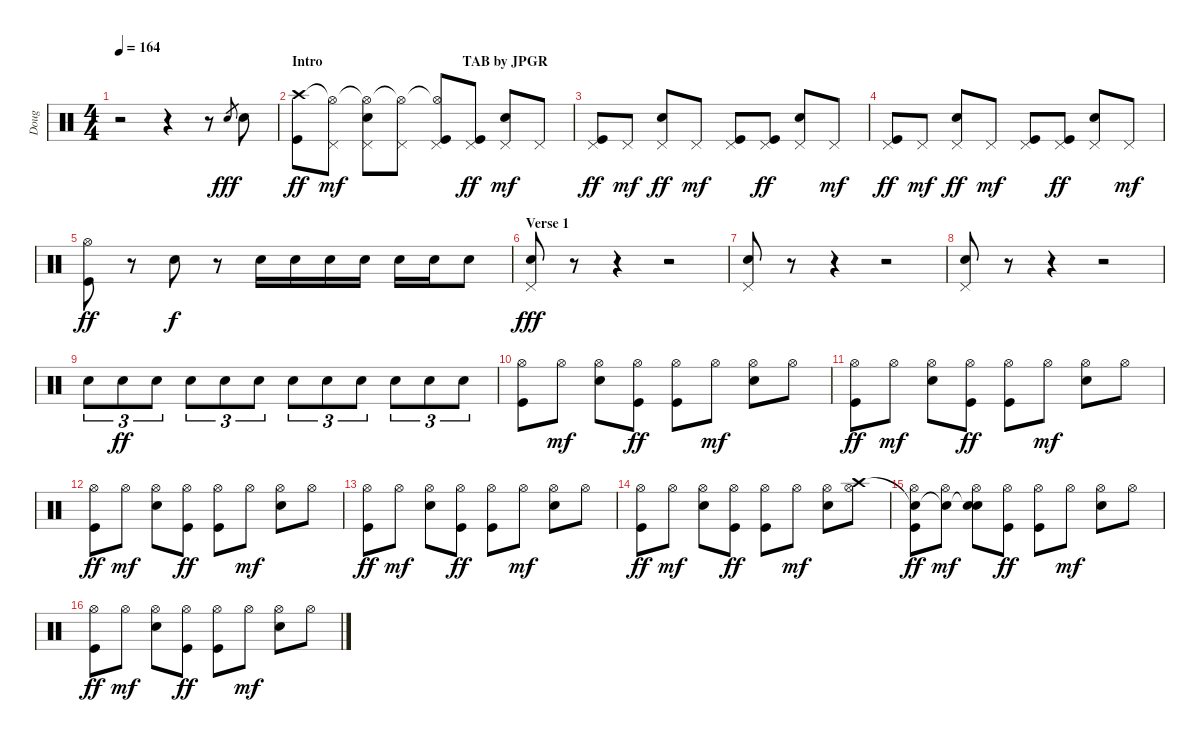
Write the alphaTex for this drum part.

\track ("Doug" "Doug") {instrument percussion}
\staff {score}
\articulation defaults
\ts (4 4)
\tempo 164
\clef neutral
\ks c
r.2{dy fff} r.4 r.8 "Electric Snare (hit)".8{gr} "Electric Snare (hit)".8 |
\section ("" "Intro                                        TAB by JPGR")
("Crash high (hit)" "Kick (hit)").8{dy ff} ("Hi-Hat (open)"{t} "Pedal Hi-Hat (hit)").8{dy mf} ("Hi-Hat (open)"{t} "Pedal Hi-Hat (hit)" "Electric Snare (hit)").8 ("Hi-Hat (open)"{t} "Pedal Hi-Hat (hit)").8 ("Hi-Hat (open)"{t} "Pedal Hi-Hat (hit)" "Kick (hit)").8 ("Pedal Hi-Hat (hit)" "Kick (hit)").8{dy ff} ("Pedal Hi-Hat (hit)" "Electric Snare (hit)").8{dy mf} "Pedal Hi-Hat (hit)".8 |
("Pedal Hi-Hat (hit)" "Kick (hit)").8{dy ff} "Pedal Hi-Hat (hit)".8{dy mf} ("Pedal Hi-Hat (hit)" "Electric Snare (hit)").8{dy ff} "Pedal Hi-Hat (hit)".8{dy mf} ("Pedal Hi-Hat (hit)" "Kick (hit)").8 ("Pedal Hi-Hat (hit)" "Kick (hit)").8{dy ff} ("Pedal Hi-Hat (hit)" "Electric Snare (hit)").8 "Pedal Hi-Hat (hit)".8{dy mf} |
("Pedal Hi-Hat (hit)" "Kick (hit)").8{dy ff} "Pedal Hi-Hat (hit)".8{dy mf} ("Pedal Hi-Hat (hit)" "Electric Snare (hit)").8{dy ff} "Pedal Hi-Hat (hit)".8{dy mf} ("Pedal Hi-Hat (hit)" "Kick (hit)").8 ("Pedal Hi-Hat (hit)" "Kick (hit)").8{dy ff} ("Pedal Hi-Hat (hit)" "Electric Snare (hit)").8 "Pedal Hi-Hat (hit)".8{dy mf} |
("Hi-Hat (open)" "Kick (hit)").8{dy ff} r.8 "Electric Snare (hit)".8{dy f} r.8 "Electric Snare (hit)".16 "Electric Snare (hit)".16 "Electric Snare (hit)".16 "Electric Snare (hit)".16 "Electric Snare (hit)".16 "Electric Snare (hit)".16 "Electric Snare (hit)".8 |
\section ("" "Verse 1")
("Pedal Hi-Hat (hit)" "Electric Snare (hit)").8{dy fff} r.8 r.4 r.2 |
("Pedal Hi-Hat (hit)" "Electric Snare (hit)").8 r.8 r.4 r.2 |
("Pedal Hi-Hat (hit)" "Electric Snare (hit)").8 r.8 r.4 r.2 |
"Electric Snare (hit)".8{tu (3 2)} "Electric Snare (hit)".8{tu (3 2) dy ff} "Electric Snare (hit)".8{tu (3 2)} "Electric Snare (hit)".8{tu (3 2)} "Electric Snare (hit)".8{tu (3 2)} "Electric Snare (hit)".8{tu (3 2)} "Electric Snare (hit)".8{tu (3 2)} "Electric Snare (hit)".8{tu (3 2)} "Electric Snare (hit)".8{tu (3 2)} "Electric Snare (hit)".8{tu (3 2)} "Electric Snare (hit)".8{tu (3 2)} "Electric Snare (hit)".8{tu (3 2)} |
("Hi-Hat (open)" "Kick (hit)").8 "Hi-Hat (open)".8{dy mf} ("Hi-Hat (open)" "Electric Snare (hit)").8 ("Hi-Hat (open)" "Kick (hit)").8{dy ff} ("Hi-Hat (open)" "Kick (hit)").8 "Hi-Hat (open)".8{dy mf} ("Hi-Hat (open)" "Electric Snare (hit)").8 "Hi-Hat (open)".8 |
("Hi-Hat (open)" "Kick (hit)").8{dy ff} "Hi-Hat (open)".8{dy mf} ("Hi-Hat (open)" "Electric Snare (hit)").8 ("Hi-Hat (open)" "Kick (hit)").8{dy ff} ("Hi-Hat (open)" "Kick (hit)").8 "Hi-Hat (open)".8{dy mf} ("Hi-Hat (open)" "Electric Snare (hit)").8 "Hi-Hat (open)".8 |
("Hi-Hat (open)" "Kick (hit)").8{dy ff} "Hi-Hat (open)".8{dy mf} ("Hi-Hat (open)" "Electric Snare (hit)").8 ("Hi-Hat (open)" "Kick (hit)").8{dy ff} ("Hi-Hat (open)" "Kick (hit)").8 "Hi-Hat (open)".8{dy mf} ("Hi-Hat (open)" "Electric Snare (hit)").8 "Hi-Hat (open)".8 |
("Hi-Hat (open)" "Kick (hit)").8{dy ff} "Hi-Hat (open)".8{dy mf} ("Hi-Hat (open)" "Electric Snare (hit)").8 ("Hi-Hat (open)" "Kick (hit)").8{dy ff} ("Hi-Hat (open)" "Kick (hit)").8 "Hi-Hat (open)".8{dy mf} ("Hi-Hat (open)" "Electric Snare (hit)").8 "Hi-Hat (open)".8 |
("Hi-Hat (open)" "Kick (hit)").8{dy ff} "Hi-Hat (open)".8{dy mf} ("Hi-Hat (open)" "Electric Snare (hit)").8 ("Hi-Hat (open)" "Kick (hit)").8{dy ff} ("Hi-Hat (open)" "Kick (hit)").8 "Hi-Hat (open)".8{dy mf} ("Hi-Hat (open)" "Electric Snare (hit)").8 ("Crash high (hit)" "Hi-Hat (open)").8 |
("Snare (hit)"{t} "Hi-Hat (open)" "Kick (hit)").8{dy ff} ("Snare (hit)"{t} "Hi-Hat (open)").8{dy mf} ("Snare (hit)"{t} "Hi-Hat (open)" "Electric Snare (hit)").8 ("Hi-Hat (open)" "Kick (hit)").8{dy ff} ("Hi-Hat (open)" "Kick (hit)").8 "Hi-Hat (open)".8{dy mf} ("Hi-Hat (open)" "Electric Snare (hit)").8 "Hi-Hat (open)".8 |
("Hi-Hat (open)" "Kick (hit)").8{dy ff} "Hi-Hat (open)".8{dy mf} ("Hi-Hat (open)" "Electric Snare (hit)").8 ("Hi-Hat (open)" "Kick (hit)").8{dy ff} ("Hi-Hat (open)" "Kick (hit)").8 "Hi-Hat (open)".8{dy mf} ("Hi-Hat (open)" "Electric Snare (hit)").8 "Hi-Hat (open)".8
